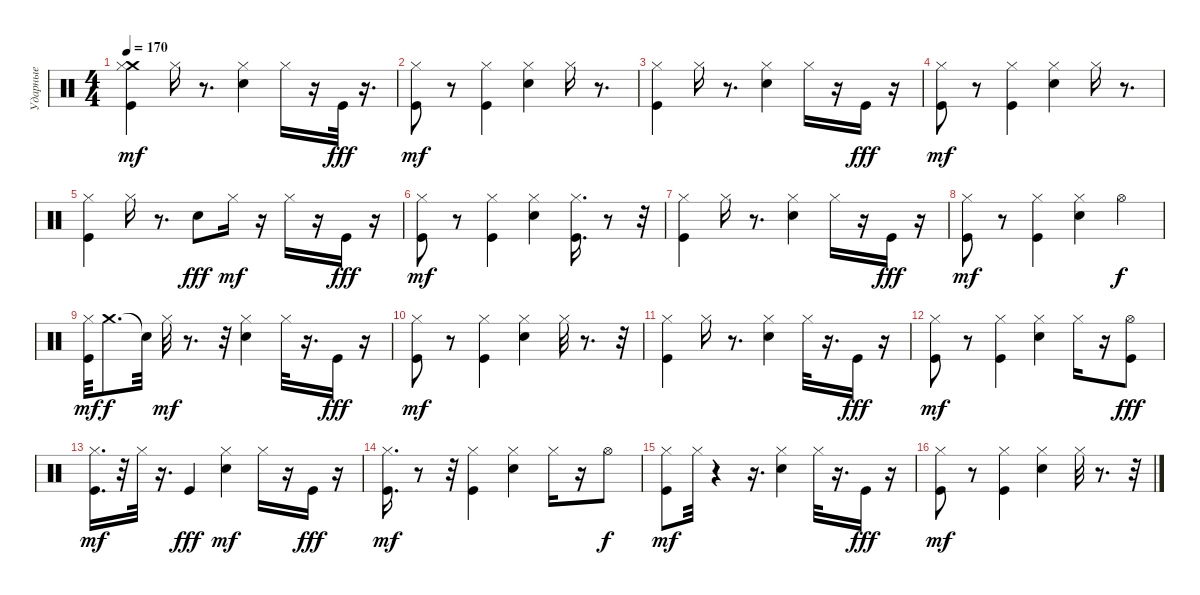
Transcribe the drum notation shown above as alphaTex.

\track ("Ударные" "Ударные") {instrument percussion}
\staff {score}
\articulation defaults
\ts (4 4)
\tempo 170
\clef neutral
\ks c
("Kick (hit)" "Crash medium (hit)" "Hi-Hat (closed)").4{dy mf} "Hi-Hat (closed)".16 r.8{d} ("Snare (hit) 2" "Hi-Hat (closed)").4 "Hi-Hat (closed)".16 r.16 "Kick (hit)".32{dy fff} r.16{d} |
("Kick (hit)" "Hi-Hat (closed)").8{dy mf} r.8 ("Kick (hit)" "Hi-Hat (closed)").4 ("Snare (hit) 2" "Hi-Hat (closed)").4 "Hi-Hat (closed)".16 r.8{d} |
("Kick (hit)" "Hi-Hat (closed)").4 "Hi-Hat (closed)".16 r.8{d} ("Snare (hit) 2" "Hi-Hat (closed)").4 "Hi-Hat (closed)".16 r.16 "Kick (hit)".16{dy fff} r.16 |
("Kick (hit)" "Hi-Hat (closed)").8{dy mf} r.8 ("Kick (hit)" "Hi-Hat (closed)").4 ("Snare (hit) 2" "Hi-Hat (closed)").4 "Hi-Hat (closed)".16 r.8{d} |
("Kick (hit)" "Hi-Hat (closed)").4 "Hi-Hat (closed)".16 r.8{d} "Snare (hit) 2".8{dy fff} "Hi-Hat (closed)".16{dy mf} r.16 "Hi-Hat (closed)".16 r.16 "Kick (hit)".16{dy fff} r.16 |
("Kick (hit)" "Hi-Hat (closed)").8{dy mf} r.8 ("Kick (hit)" "Hi-Hat (closed)").4 ("Snare (hit) 2" "Hi-Hat (closed)").4 ("Kick (hit)" "Hi-Hat (closed)").16{d} r.8 r.32 |
("Kick (hit)" "Hi-Hat (closed)").4 "Hi-Hat (closed)".16 r.8{d} ("Snare (hit) 2" "Hi-Hat (closed)").4 "Hi-Hat (closed)".16 r.16 "Kick (hit)".16{dy fff} r.16 |
("Kick (hit)" "Hi-Hat (closed)").8{dy mf} r.8 ("Kick (hit)" "Hi-Hat (closed)").4 ("Snare (hit) 2" "Hi-Hat (closed)").4 "Hi-Hat (open)".4{dy f} |
("Kick (hit)" "Hi-Hat (closed)").32{dy mf} "Crash medium (hit)".8{d dy f} "Snare (hit)"{t}.32 "Hi-Hat (closed)".32{dy mf} r.8{d} r.32 ("Snare (hit) 2" "Hi-Hat (closed)").4 "Hi-Hat (closed)".32 r.16{d} "Kick (hit)".16{dy fff} r.16 |
("Kick (hit)" "Hi-Hat (closed)").8{dy mf} r.8 ("Kick (hit)" "Hi-Hat (closed)").4 ("Snare (hit) 2" "Hi-Hat (closed)").4 "Hi-Hat (closed)".32 r.8{d} r.32 |
("Kick (hit)" "Hi-Hat (closed)").4 "Hi-Hat (closed)".16 r.8{d} ("Snare (hit) 2" "Hi-Hat (closed)").4 "Hi-Hat (closed)".32 r.16{d} "Kick (hit)".16{dy fff} r.16 |
("Kick (hit)" "Hi-Hat (closed)").8{dy mf} r.8 ("Kick (hit)" "Hi-Hat (closed)").4 ("Snare (hit) 2" "Hi-Hat (closed)").4 "Hi-Hat (closed)".16 r.16 ("Kick (hit)" "Hi-Hat (open)").8{dy fff} |
("Kick (hit)" "Hi-Hat (closed)").16{d dy mf} r.32 "Hi-Hat (closed)".32 r.16{d} "Kick (hit)".4{dy fff} ("Snare (hit) 2" "Hi-Hat (closed)").4{dy mf} "Hi-Hat (closed)".16 r.16 "Kick (hit)".16{dy fff} r.16 |
("Kick (hit)" "Hi-Hat (closed)").16{d dy mf} r.8 r.32 ("Kick (hit)" "Hi-Hat (closed)").4 ("Snare (hit) 2" "Hi-Hat (closed)").4 "Hi-Hat (closed)".16 r.16 "Hi-Hat (open)".8{dy f} |
("Kick (hit)" "Hi-Hat (closed)").8{dy mf} "Hi-Hat (closed)".32 r.4 r.16{d} ("Snare (hit) 2" "Hi-Hat (closed)").4 "Hi-Hat (closed)".32 r.16{d} "Kick (hit)".16{dy fff} r.16 |
("Kick (hit)" "Hi-Hat (closed)").8{dy mf} r.8 ("Kick (hit)" "Hi-Hat (closed)").4 ("Snare (hit) 2" "Hi-Hat (closed)").4 "Hi-Hat (closed)".32 r.8{d} r.32
